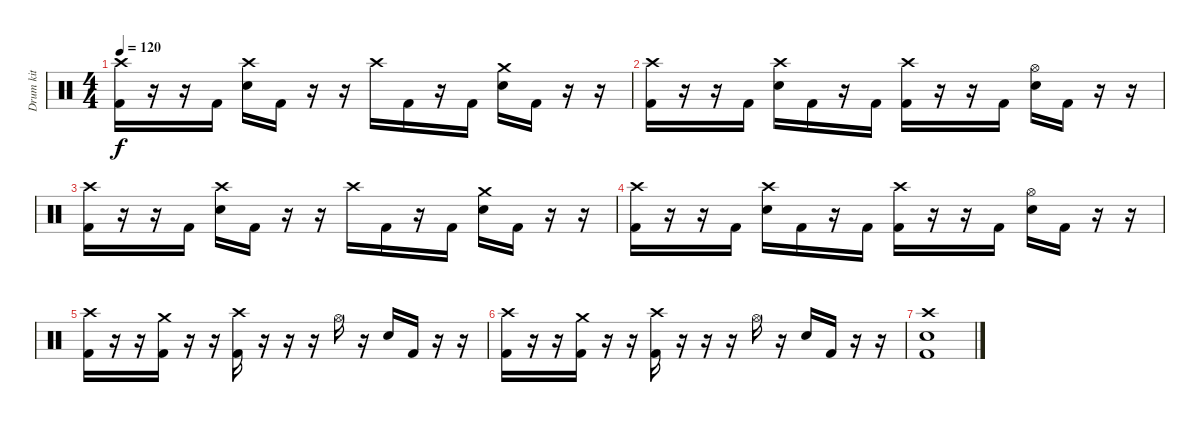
\track ("Drum kit" "Drum kit") {instrument percussion}
\staff {score}
\articulation defaults
\ts (4 4)
\tempo 120
\clef neutral
\ks c
("Kick (hit) 2" "Crash high (hit)").16{dy f} r.16 r.16 "Kick (hit) 2".16 ("Snare (hit) 2" "Crash high (hit)").16 "Kick (hit) 2".16 r.16 r.16 "Crash high (hit)".16 "Kick (hit) 2".16 r.16 "Kick (hit) 2".16 ("Snare (hit) 2" "Crash medium (hit)").16 "Kick (hit) 2".16 r.16 r.16 |
("Kick (hit) 2" "Crash high (hit)").16 r.16 r.16 "Kick (hit) 2".16 ("Snare (hit) 2" "Crash high (hit)").16 "Kick (hit) 2".16 r.16 "Kick (hit) 2".16 ("Crash high (hit)" "Kick (hit) 2").16 r.16 r.16 "Kick (hit) 2".16 ("Snare (hit) 2" "Hi-Hat (open)").16 "Kick (hit) 2".16 r.16 r.16 |
("Kick (hit) 2" "Crash high (hit)").16 r.16 r.16 "Kick (hit) 2".16 ("Snare (hit) 2" "Crash high (hit)").16 "Kick (hit) 2".16 r.16 r.16 "Crash high (hit)".16 "Kick (hit) 2".16 r.16 "Kick (hit) 2".16 ("Snare (hit) 2" "Crash medium (hit)").16 "Kick (hit) 2".16 r.16 r.16 |
("Kick (hit) 2" "Crash high (hit)").16 r.16 r.16 "Kick (hit) 2".16 ("Snare (hit) 2" "Crash high (hit)").16 "Kick (hit) 2".16 r.16 "Kick (hit) 2".16 ("Crash high (hit)" "Kick (hit) 2").16 r.16 r.16 "Kick (hit) 2".16 ("Snare (hit) 2" "Hi-Hat (open)").16 "Kick (hit) 2".16 r.16 r.16 |
("Crash high (hit)" "Kick (hit) 2").16 r.16 r.16 ("Crash medium (hit)" "Kick (hit) 2").16 r.16 r.16 ("Crash high (hit)" "Kick (hit) 2").16 r.16 r.16 r.16 "Hi-Hat (open)".16 r.16 "Snare (hit) 2".16 "Kick (hit) 2".16 r.16 r.16 |
("Crash high (hit)" "Kick (hit) 2").16 r.16 r.16 ("Crash medium (hit)" "Kick (hit) 2").16 r.16 r.16 ("Crash high (hit)" "Kick (hit) 2").16 r.16 r.16 r.16 "Hi-Hat (open)".16 r.16 "Snare (hit) 2".16 "Kick (hit) 2".16 r.16 r.16 |
("Kick (hit) 2" "Snare (hit) 2" "Crash high (hit)").1
